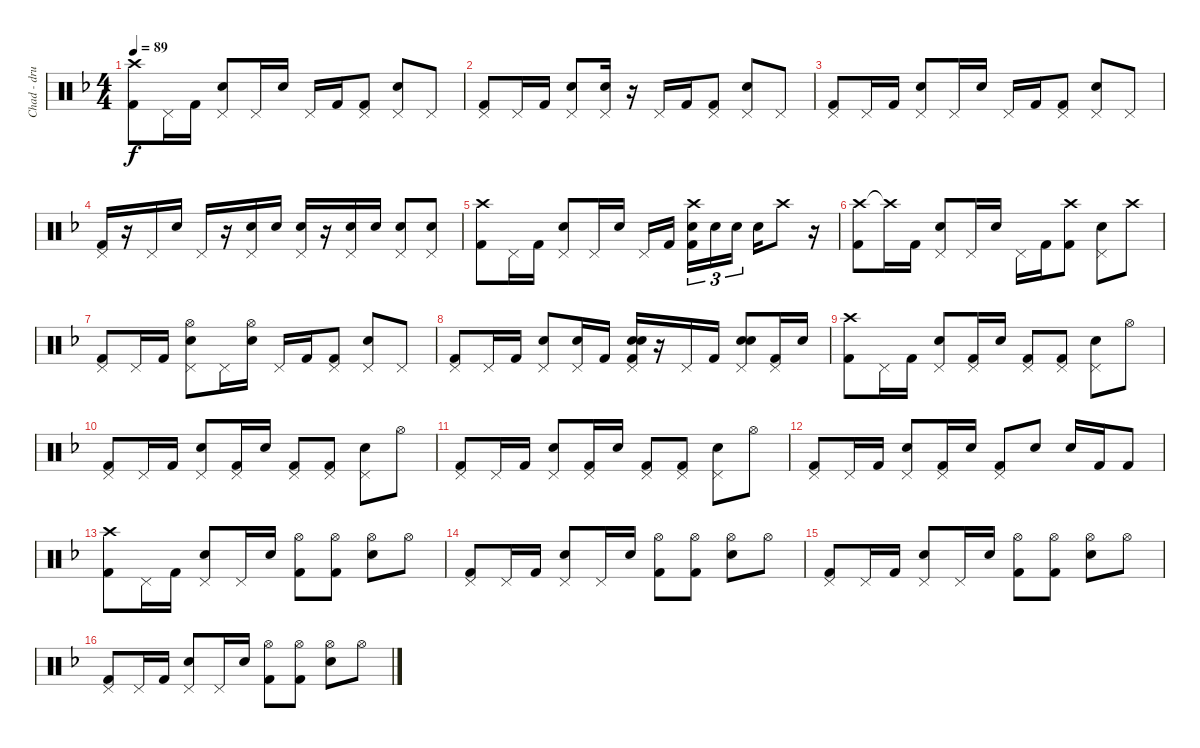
\track ("Chad - drums" "Chad - dru") {instrument percussion}
\staff {score}
\articulation defaults
\ts (4 4)
\tempo 89
\clef neutral
\ks f
("Crash high (hit)" "Kick (hit) 2").8{dy f} "Pedal Hi-Hat (hit)".16 "Kick (hit) 2".16 ("Pedal Hi-Hat (hit)" "Electric Snare (hit)").8 "Pedal Hi-Hat (hit)".16 "Electric Snare (hit)".16 "Pedal Hi-Hat (hit)".16 "Kick (hit) 2".16 ("Pedal Hi-Hat (hit)" "Kick (hit) 2").8 ("Pedal Hi-Hat (hit)" "Electric Snare (hit)").8 "Pedal Hi-Hat (hit)".8 |
("Pedal Hi-Hat (hit)" "Kick (hit) 2").8 "Pedal Hi-Hat (hit)".16 "Kick (hit) 2".16 ("Pedal Hi-Hat (hit)" "Electric Snare (hit)").8 ("Pedal Hi-Hat (hit)" "Electric Snare (hit)").16 r.16 "Pedal Hi-Hat (hit)".16 "Kick (hit) 2".16 ("Pedal Hi-Hat (hit)" "Kick (hit) 2").8 ("Pedal Hi-Hat (hit)" "Electric Snare (hit)").8 "Pedal Hi-Hat (hit)".8 |
("Pedal Hi-Hat (hit)" "Kick (hit) 2").8 "Pedal Hi-Hat (hit)".16 "Kick (hit) 2".16 ("Pedal Hi-Hat (hit)" "Electric Snare (hit)").8 "Pedal Hi-Hat (hit)".16 "Electric Snare (hit)".16 "Pedal Hi-Hat (hit)".16 "Kick (hit) 2".16 ("Pedal Hi-Hat (hit)" "Kick (hit) 2").8 ("Pedal Hi-Hat (hit)" "Electric Snare (hit)").8 "Pedal Hi-Hat (hit)".8 |
("Pedal Hi-Hat (hit)" "Kick (hit) 2").16 r.16 "Pedal Hi-Hat (hit)".16 "Electric Snare (hit)".16 "Pedal Hi-Hat (hit)".16 r.16 ("Pedal Hi-Hat (hit)" "Snare (hit) 2").16 "Electric Snare (hit)".16 ("Pedal Hi-Hat (hit)" "Snare (hit) 2").16 r.16 ("Pedal Hi-Hat (hit)" "Snare (hit) 2").16 "Electric Snare (hit)".16 ("Pedal Hi-Hat (hit)" "Snare (hit) 2").8 ("Pedal Hi-Hat (hit)" "Electric Snare (hit)").8 |
("Crash high (hit)" "Kick (hit) 2").8 "Pedal Hi-Hat (hit)".16 "Kick (hit) 2".16 ("Pedal Hi-Hat (hit)" "Electric Snare (hit)").8 "Pedal Hi-Hat (hit)".16 "Electric Snare (hit)".16 "Pedal Hi-Hat (hit)".16 "Kick (hit) 2".16{beam splitsecondary} ("Crash high (hit)" "Snare (hit) 2" "Kick (hit) 2").16{tu (3 2)} "Electric Snare (hit)".16{tu (3 2)} "Electric Snare (hit)".16{tu (3 2)} "Electric Snare (hit)".16 "Crash high (hit)".8 r.16 |
("Crash high (hit)" "Kick (hit) 2").8 "Crash high (hit)"{t}.16 "Kick (hit) 2".16 ("Pedal Hi-Hat (hit)" "Electric Snare (hit)").8 "Pedal Hi-Hat (hit)".16 "Electric Snare (hit)".16 "Pedal Hi-Hat (hit)".16 "Kick (hit) 2".16 ("Crash high (hit)" "Kick (hit) 2").8 ("Pedal Hi-Hat (hit)" "Electric Snare (hit)").8 "Crash high (hit)".8 |
("Pedal Hi-Hat (hit)" "Kick (hit) 2").8 "Pedal Hi-Hat (hit)".16 "Kick (hit) 2".16 ("Pedal Hi-Hat (hit)" "Hi-Hat (open)" "Electric Snare (hit)").8 "Pedal Hi-Hat (hit)".16 ("Hi-Hat (open)" "Electric Snare (hit)").16 "Pedal Hi-Hat (hit)".16 "Kick (hit) 2".16 ("Pedal Hi-Hat (hit)" "Kick (hit) 2").8 ("Pedal Hi-Hat (hit)" "Electric Snare (hit)").8 "Pedal Hi-Hat (hit)".8 |
("Pedal Hi-Hat (hit)" "Kick (hit) 2").8 "Pedal Hi-Hat (hit)".16 "Kick (hit) 2".16 ("Pedal Hi-Hat (hit)" "Electric Snare (hit)").8 ("Pedal Hi-Hat (hit)" "Electric Snare (hit)").16 "Kick (hit) 2".16 ("Pedal Hi-Hat (hit)" "Electric Snare (hit)" "Electric Snare (hit)" "Kick (hit) 2").16 r.16 "Pedal Hi-Hat (hit)".16 "Kick (hit) 2".16 ("Pedal Hi-Hat (hit)" "Electric Snare (hit)" "Electric Snare (hit)").8 ("Pedal Hi-Hat (hit)" "Kick (hit) 2").16 "Electric Snare (hit)".16 |
("Crash high (hit)" "Kick (hit) 2").8 "Pedal Hi-Hat (hit)".16 "Kick (hit) 2".16 ("Pedal Hi-Hat (hit)" "Electric Snare (hit)").8 ("Pedal Hi-Hat (hit)" "Kick (hit) 2").16 "Electric Snare (hit)".16 ("Pedal Hi-Hat (hit)" "Kick (hit) 2").8 ("Pedal Hi-Hat (hit)" "Kick (hit) 2").8 ("Pedal Hi-Hat (hit)" "Electric Snare (hit)").8 "Hi-Hat (open)".8 |
("Pedal Hi-Hat (hit)" "Kick (hit) 2").8 "Pedal Hi-Hat (hit)".16 "Kick (hit) 2".16 ("Pedal Hi-Hat (hit)" "Electric Snare (hit)").8 ("Pedal Hi-Hat (hit)" "Kick (hit) 2").16 "Electric Snare (hit)".16 ("Pedal Hi-Hat (hit)" "Kick (hit) 2").8 ("Pedal Hi-Hat (hit)" "Kick (hit) 2").8 ("Pedal Hi-Hat (hit)" "Electric Snare (hit)").8 "Hi-Hat (open)".8 |
("Pedal Hi-Hat (hit)" "Kick (hit) 2").8 "Pedal Hi-Hat (hit)".16 "Kick (hit) 2".16 ("Pedal Hi-Hat (hit)" "Electric Snare (hit)").8 ("Pedal Hi-Hat (hit)" "Kick (hit) 2").16 "Electric Snare (hit)".16 ("Pedal Hi-Hat (hit)" "Kick (hit) 2").8 ("Pedal Hi-Hat (hit)" "Kick (hit) 2").8 ("Pedal Hi-Hat (hit)" "Electric Snare (hit)").8 "Hi-Hat (open)".8 |
("Pedal Hi-Hat (hit)" "Kick (hit) 2").8 "Pedal Hi-Hat (hit)".16 "Kick (hit) 2".16 ("Pedal Hi-Hat (hit)" "Electric Snare (hit)").8 ("Pedal Hi-Hat (hit)" "Kick (hit) 2").16 "Electric Snare (hit)".16 ("Pedal Hi-Hat (hit)" "Kick (hit) 2").8 "Electric Snare (hit)".8 "Electric Snare (hit)".16 "Kick (hit) 2".16 "Kick (hit) 2".8 |
("Crash high (hit)" "Kick (hit) 2").8 "Pedal Hi-Hat (hit)".16 "Kick (hit) 2".16 ("Pedal Hi-Hat (hit)" "Electric Snare (hit)").8 "Pedal Hi-Hat (hit)".16 "Electric Snare (hit)".16 ("Hi-Hat (open)" "Kick (hit) 2").8 ("Hi-Hat (open)" "Kick (hit) 2").8 ("Hi-Hat (open)" "Electric Snare (hit)").8 "Hi-Hat (open)".8 |
("Pedal Hi-Hat (hit)" "Kick (hit) 2").8 "Pedal Hi-Hat (hit)".16 "Kick (hit) 2".16 ("Pedal Hi-Hat (hit)" "Electric Snare (hit)").8 "Pedal Hi-Hat (hit)".16 "Electric Snare (hit)".16 ("Hi-Hat (open)" "Kick (hit) 2").8 ("Hi-Hat (open)" "Kick (hit) 2").8 ("Hi-Hat (open)" "Electric Snare (hit)").8 "Hi-Hat (open)".8 |
("Pedal Hi-Hat (hit)" "Kick (hit) 2").8 "Pedal Hi-Hat (hit)".16 "Kick (hit) 2".16 ("Pedal Hi-Hat (hit)" "Electric Snare (hit)").8 "Pedal Hi-Hat (hit)".16 "Electric Snare (hit)".16 ("Hi-Hat (open)" "Kick (hit) 2").8 ("Hi-Hat (open)" "Kick (hit) 2").8 ("Hi-Hat (open)" "Electric Snare (hit)").8 "Hi-Hat (open)".8 |
("Pedal Hi-Hat (hit)" "Kick (hit) 2").8 "Pedal Hi-Hat (hit)".16 "Kick (hit) 2".16 ("Pedal Hi-Hat (hit)" "Electric Snare (hit)").8 "Pedal Hi-Hat (hit)".16 "Electric Snare (hit)".16 ("Hi-Hat (open)" "Kick (hit) 2").8 ("Hi-Hat (open)" "Kick (hit) 2").8 ("Hi-Hat (open)" "Electric Snare (hit)").8 "Hi-Hat (open)".8
